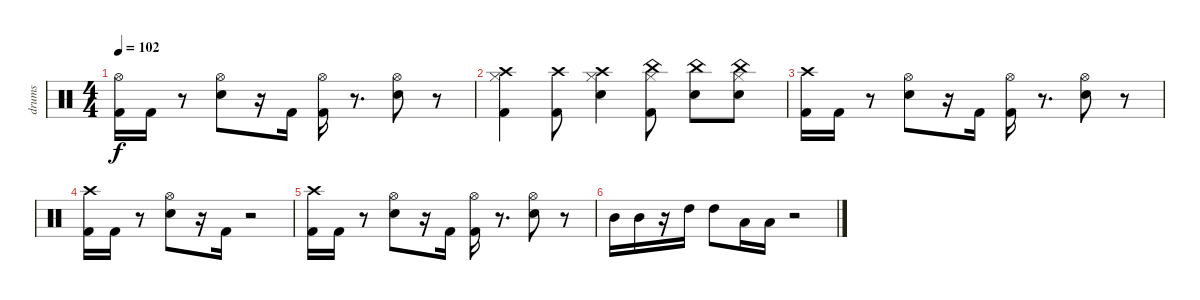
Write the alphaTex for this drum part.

\track ("drums" "drums") {instrument percussion}
\staff {score}
\articulation defaults
\ts (4 4)
\tempo 102
\clef neutral
\ks c
("Kick (hit) 2" "Hi-Hat (open)").16{dy f} "Kick (hit) 2".16 r.8 ("Snare (hit) 2" "Hi-Hat (open)").8 r.16 "Kick (hit) 2".16 ("Kick (hit) 2" "Hi-Hat (open)").16 r.8{d} ("Snare (hit) 2" "Hi-Hat (open)").8 r.8 |
("Kick (hit) 2" "Hi-Hat (closed)" "Crash high (hit)").4 ("Kick (hit) 2" "Crash high (hit)").8 ("Snare (hit) 2" "Hi-Hat (closed)" "Crash high (hit)").4 ("Kick (hit) 2" "Hi-Hat (closed)" "China (hit)").8 ("Snare (hit) 2" "China (hit)").8 ("Snare (hit) 2" "Hi-Hat (closed)" "China (hit)").8 |
("Kick (hit) 2" "Crash high (hit)").16 "Kick (hit) 2".16 r.8 ("Snare (hit) 2" "Hi-Hat (open)").8 r.16 "Kick (hit) 2".16 ("Kick (hit) 2" "Hi-Hat (open)").16 r.8{d} ("Snare (hit) 2" "Hi-Hat (open)").8 r.8 |
("Kick (hit) 2" "Crash high (hit)").16 "Kick (hit) 2".16 r.8 ("Snare (hit) 2" "Hi-Hat (open)").8 r.16 "Kick (hit) 2".16 r.2 |
("Kick (hit) 2" "Crash high (hit)").16 "Kick (hit) 2".16 r.8 ("Snare (hit) 2" "Hi-Hat (open)").8 r.16 "Kick (hit) 2".16 ("Kick (hit) 2" "Hi-Hat (open)").16 r.8{d} ("Snare (hit) 2" "Hi-Hat (open)").8 r.8 |
"Mid Tom (hit)".16 "Mid Tom (hit)".16 r.16 "High Tom (hit)".16 "High Tom (hit)".8 "Low Tom (hit)".16 "Low Tom (hit)".16 r.2
